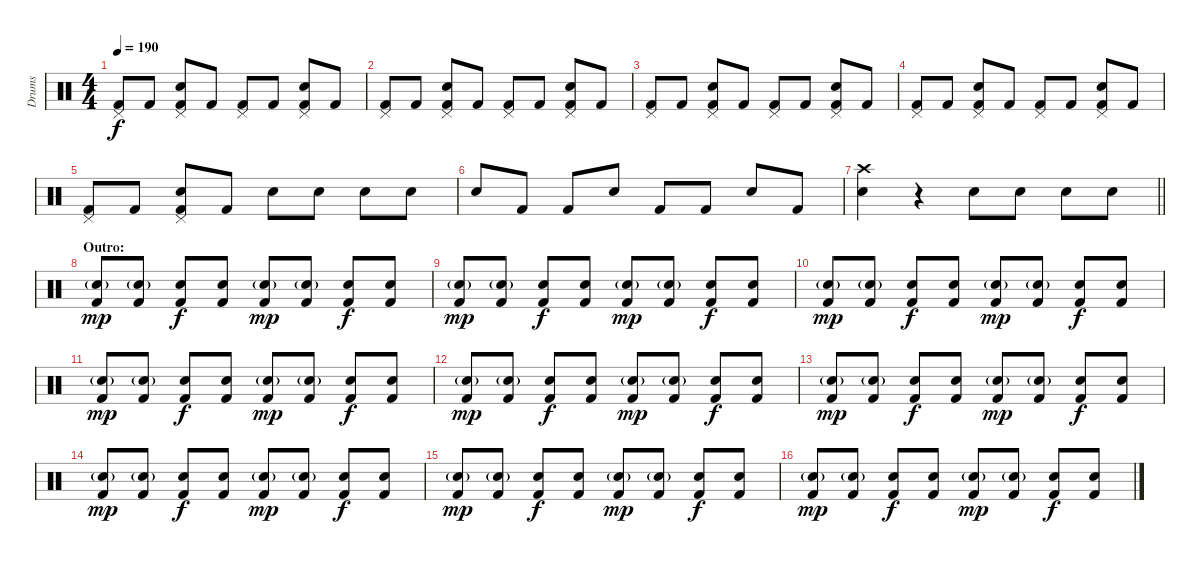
\track ("Drums" "Drums") {instrument percussion}
\staff {score}
\articulation defaults
\ts (4 4)
\tempo 190
\clef neutral
\ks c
("Pedal Hi-Hat (hit)" "Kick (hit) 2").8{dy f} "Kick (hit) 2".8 ("Pedal Hi-Hat (hit)" "Electric Snare (hit)" "Kick (hit) 2").8 "Kick (hit) 2".8 ("Pedal Hi-Hat (hit)" "Kick (hit) 2").8 "Kick (hit) 2".8 ("Pedal Hi-Hat (hit)" "Electric Snare (hit)" "Kick (hit) 2").8 "Kick (hit) 2".8 |
("Pedal Hi-Hat (hit)" "Kick (hit) 2").8 "Kick (hit) 2".8 ("Pedal Hi-Hat (hit)" "Electric Snare (hit)" "Kick (hit) 2").8 "Kick (hit) 2".8 ("Pedal Hi-Hat (hit)" "Kick (hit) 2").8 "Kick (hit) 2".8 ("Pedal Hi-Hat (hit)" "Electric Snare (hit)" "Kick (hit) 2").8 "Kick (hit) 2".8 |
("Pedal Hi-Hat (hit)" "Kick (hit) 2").8 "Kick (hit) 2".8 ("Pedal Hi-Hat (hit)" "Electric Snare (hit)" "Kick (hit) 2").8 "Kick (hit) 2".8 ("Pedal Hi-Hat (hit)" "Kick (hit) 2").8 "Kick (hit) 2".8 ("Pedal Hi-Hat (hit)" "Electric Snare (hit)" "Kick (hit) 2").8 "Kick (hit) 2".8 |
("Pedal Hi-Hat (hit)" "Kick (hit) 2").8 "Kick (hit) 2".8 ("Pedal Hi-Hat (hit)" "Electric Snare (hit)" "Kick (hit) 2").8 "Kick (hit) 2".8 ("Pedal Hi-Hat (hit)" "Kick (hit) 2").8 "Kick (hit) 2".8 ("Pedal Hi-Hat (hit)" "Electric Snare (hit)" "Kick (hit) 2").8 "Kick (hit) 2".8 |
("Pedal Hi-Hat (hit)" "Kick (hit) 2").8 "Kick (hit) 2".8 ("Pedal Hi-Hat (hit)" "Electric Snare (hit)" "Kick (hit) 2").8 "Kick (hit) 2".8 "Electric Snare (hit)".8 "Electric Snare (hit)".8 "Electric Snare (hit)".8 "Electric Snare (hit)".8 |
"Electric Snare (hit)".8 "Kick (hit) 2".8 "Kick (hit) 2".8 "Electric Snare (hit)".8 "Kick (hit) 2".8 "Kick (hit) 2".8 "Electric Snare (hit)".8 "Kick (hit) 2".8 |
\barLineRight lightlight
("Crash high (hit)" "Electric Snare (hit)").4 r.4 "Electric Snare (hit)".8 "Electric Snare (hit)".8 "Electric Snare (hit)".8 "Electric Snare (hit)".8 |
\section ("" "Outro:")
("Electric Snare (hit)"{g} "Kick (hit) 2").8{dy mp} ("Electric Snare (hit)"{g} "Kick (hit) 2").8 ("Electric Snare (hit)" "Kick (hit) 2").8{dy f} ("Electric Snare (hit)" "Kick (hit) 2").8 ("Electric Snare (hit)"{g} "Kick (hit) 2").8{dy mp} ("Electric Snare (hit)"{g} "Kick (hit) 2").8 ("Electric Snare (hit)" "Kick (hit) 2").8{dy f} ("Electric Snare (hit)" "Kick (hit) 2").8 |
("Electric Snare (hit)"{g} "Kick (hit) 2").8{dy mp} ("Electric Snare (hit)"{g} "Kick (hit) 2").8 ("Electric Snare (hit)" "Kick (hit) 2").8{dy f} ("Electric Snare (hit)" "Kick (hit) 2").8 ("Electric Snare (hit)"{g} "Kick (hit) 2").8{dy mp} ("Electric Snare (hit)"{g} "Kick (hit) 2").8 ("Electric Snare (hit)" "Kick (hit) 2").8{dy f} ("Electric Snare (hit)" "Kick (hit) 2").8 |
("Electric Snare (hit)"{g} "Kick (hit) 2").8{dy mp} ("Electric Snare (hit)"{g} "Kick (hit) 2").8 ("Electric Snare (hit)" "Kick (hit) 2").8{dy f} ("Electric Snare (hit)" "Kick (hit) 2").8 ("Electric Snare (hit)"{g} "Kick (hit) 2").8{dy mp} ("Electric Snare (hit)"{g} "Kick (hit) 2").8 ("Electric Snare (hit)" "Kick (hit) 2").8{dy f} ("Electric Snare (hit)" "Kick (hit) 2").8 |
("Electric Snare (hit)"{g} "Kick (hit) 2").8{dy mp} ("Electric Snare (hit)"{g} "Kick (hit) 2").8 ("Electric Snare (hit)" "Kick (hit) 2").8{dy f} ("Electric Snare (hit)" "Kick (hit) 2").8 ("Electric Snare (hit)"{g} "Kick (hit) 2").8{dy mp} ("Electric Snare (hit)"{g} "Kick (hit) 2").8 ("Electric Snare (hit)" "Kick (hit) 2").8{dy f} ("Electric Snare (hit)" "Kick (hit) 2").8 |
("Electric Snare (hit)"{g} "Kick (hit) 2").8{dy mp} ("Electric Snare (hit)"{g} "Kick (hit) 2").8 ("Electric Snare (hit)" "Kick (hit) 2").8{dy f} ("Electric Snare (hit)" "Kick (hit) 2").8 ("Electric Snare (hit)"{g} "Kick (hit) 2").8{dy mp} ("Electric Snare (hit)"{g} "Kick (hit) 2").8 ("Electric Snare (hit)" "Kick (hit) 2").8{dy f} ("Electric Snare (hit)" "Kick (hit) 2").8 |
("Electric Snare (hit)"{g} "Kick (hit) 2").8{dy mp} ("Electric Snare (hit)"{g} "Kick (hit) 2").8 ("Electric Snare (hit)" "Kick (hit) 2").8{dy f} ("Electric Snare (hit)" "Kick (hit) 2").8 ("Electric Snare (hit)"{g} "Kick (hit) 2").8{dy mp} ("Electric Snare (hit)"{g} "Kick (hit) 2").8 ("Electric Snare (hit)" "Kick (hit) 2").8{dy f} ("Electric Snare (hit)" "Kick (hit) 2").8 |
("Electric Snare (hit)"{g} "Kick (hit) 2").8{dy mp} ("Electric Snare (hit)"{g} "Kick (hit) 2").8 ("Electric Snare (hit)" "Kick (hit) 2").8{dy f} ("Electric Snare (hit)" "Kick (hit) 2").8 ("Electric Snare (hit)"{g} "Kick (hit) 2").8{dy mp} ("Electric Snare (hit)"{g} "Kick (hit) 2").8 ("Electric Snare (hit)" "Kick (hit) 2").8{dy f} ("Electric Snare (hit)" "Kick (hit) 2").8 |
("Electric Snare (hit)"{g} "Kick (hit) 2").8{dy mp} ("Electric Snare (hit)"{g} "Kick (hit) 2").8 ("Electric Snare (hit)" "Kick (hit) 2").8{dy f} ("Electric Snare (hit)" "Kick (hit) 2").8 ("Electric Snare (hit)"{g} "Kick (hit) 2").8{dy mp} ("Electric Snare (hit)"{g} "Kick (hit) 2").8 ("Electric Snare (hit)" "Kick (hit) 2").8{dy f} ("Electric Snare (hit)" "Kick (hit) 2").8 |
("Electric Snare (hit)"{g} "Kick (hit) 2").8{dy mp} ("Electric Snare (hit)"{g} "Kick (hit) 2").8 ("Electric Snare (hit)" "Kick (hit) 2").8{dy f} ("Electric Snare (hit)" "Kick (hit) 2").8 ("Electric Snare (hit)"{g} "Kick (hit) 2").8{dy mp} ("Electric Snare (hit)"{g} "Kick (hit) 2").8 ("Electric Snare (hit)" "Kick (hit) 2").8{dy f} ("Electric Snare (hit)" "Kick (hit) 2").8
